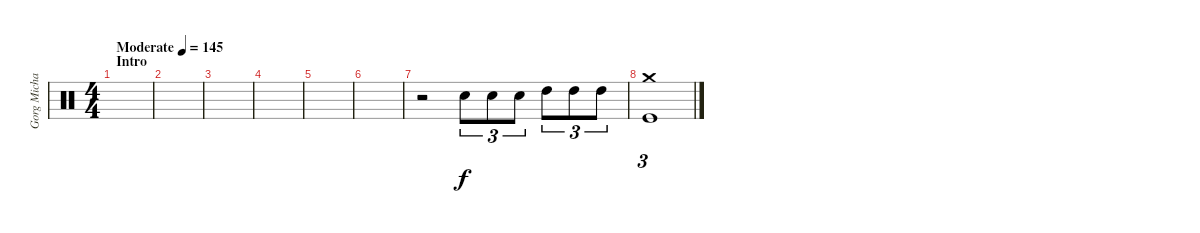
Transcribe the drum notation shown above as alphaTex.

\track ("Gorg Michael" "Gorg Micha") {instrument percussion}
\staff {score}
\articulation defaults
\ts (4 4)
\section ("" "Intro")
\tempo (145 "Moderate")
\clef neutral
\ks c
|
|
|
|
|
|
r.2 "Snare (hit) 2".8{tu (3 2)} "Snare (hit) 2".8{tu (3 2)} "Snare (hit) 2".8{tu (3 2)} "High Tom (hit)".8{tu (3 2)} "High Tom (hit)".8{tu (3 2)} "High Tom (hit)".8{tu (3 2)} |
("Crash medium (hit)" "Kick (hit)").1{tu (3 2)}
